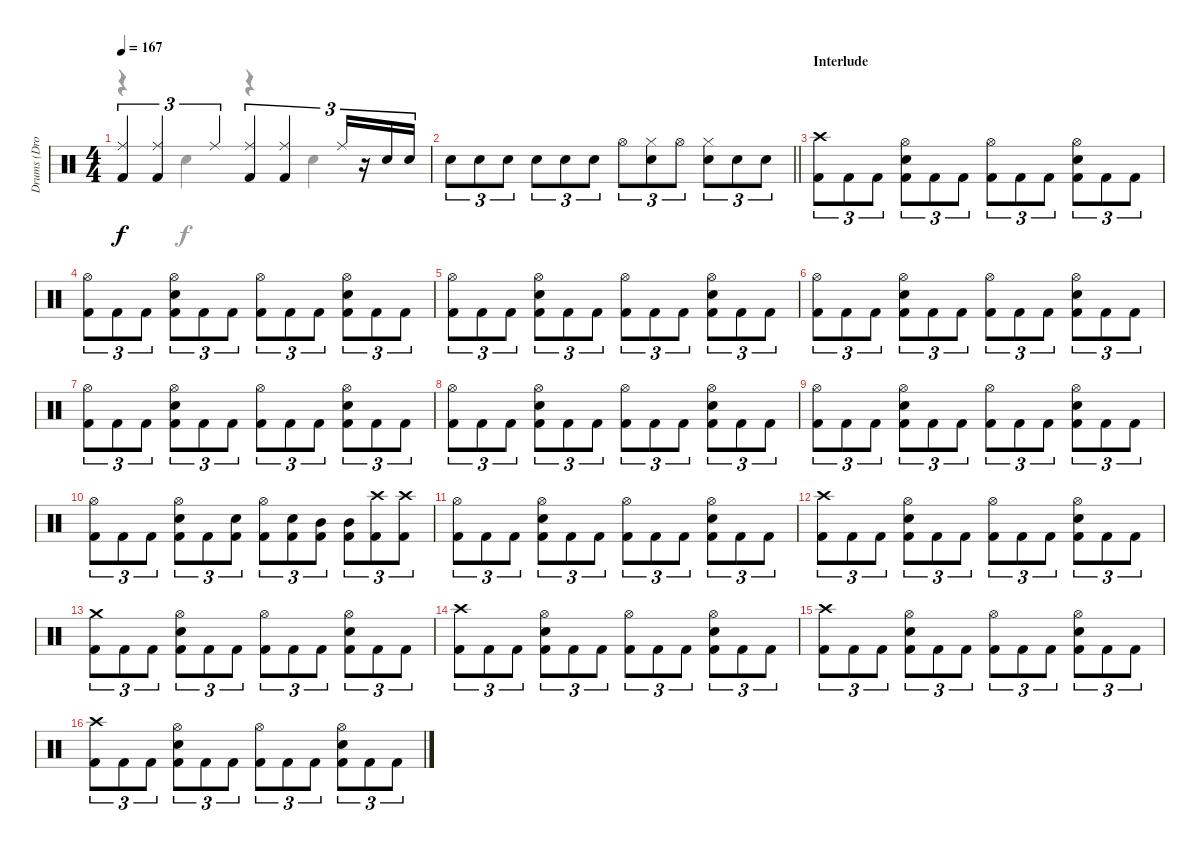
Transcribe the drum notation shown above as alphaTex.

\track ("Drums (Drover)" "Drums (Dro") {instrument percussion}
\staff {score}
\articulation defaults
\voice
\ts (4 4)
\tempo 167
\clef neutral
\ks c
("Ride (middle)" "Kick (hit) 2").4{tu (3 2) dy f} ("Ride (middle)" "Kick (hit) 2").4{tu (3 2)} "Ride (middle)".4{tu (3 2)} ("Ride (middle)" "Kick (hit) 2").4{tu (3 2)} ("Ride (middle)" "Kick (hit) 2").4{tu (3 2)} "Ride (middle)".16{tu (3 2)} r.16{tu (3 2)} "Electric Snare (hit)".16{tu (3 2)} "Electric Snare (hit)".16{tu (3 2)} |
\barLineRight lightlight "Electric Snare (hit)".8{tu (3 2)} "Electric Snare (hit)".8{tu (3 2)} "Electric Snare (hit)".8{tu (3 2)} "Electric Snare (hit)".8{tu (3 2)} "Electric Snare (hit)".8{tu (3 2)} "Electric Snare (hit)".8{tu (3 2)} "Hi-Hat (open)".8{tu (3 2)}
("Hi-Hat (closed)" "Electric Snare (hit)").8{tu (3 2)} "Hi-Hat (open)".8{tu (3 2)} ("Hi-Hat (closed)" "Electric Snare (hit)").8{tu (3 2)} "Electric Snare (hit)".8{tu (3 2)} "Electric Snare (hit)".8{tu (3 2)} |
\section ("" "Interlude")
("Crash high (hit)" "Kick (hit) 2").8{tu (3 2)} "Kick (hit) 2".8{tu (3 2)} "Kick (hit) 2".8{tu (3 2)} ("Hi-Hat (open)" "Electric Snare (hit)" "Kick (hit) 2").8{tu (3 2)} "Kick (hit) 2".8{tu (3 2)} "Kick (hit) 2".8{tu (3 2)} ("Hi-Hat (open)" "Kick (hit) 2").8{tu (3 2)} "Kick (hit) 2".8{tu (3 2)} "Kick (hit) 2".8{tu (3 2)} ("Hi-Hat (open)" "Electric Snare (hit)" "Kick (hit) 2").8{tu (3 2)} "Kick (hit) 2".8{tu (3 2)} "Kick (hit) 2".8{tu (3 2)} |
("Hi-Hat (open)" "Kick (hit) 2").8{tu (3 2)} "Kick (hit) 2".8{tu (3 2)} "Kick (hit) 2".8{tu (3 2)} ("Hi-Hat (open)" "Electric Snare (hit)" "Kick (hit) 2").8{tu (3 2)} "Kick (hit) 2".8{tu (3 2)} "Kick (hit) 2".8{tu (3 2)} ("Hi-Hat (open)" "Kick (hit) 2").8{tu (3 2)} "Kick (hit) 2".8{tu (3 2)} "Kick (hit) 2".8{tu (3 2)} ("Hi-Hat (open)" "Electric Snare (hit)" "Kick (hit) 2").8{tu (3 2)} "Kick (hit) 2".8{tu (3 2)} "Kick (hit) 2".8{tu (3 2)} |
("Hi-Hat (open)" "Kick (hit) 2").8{tu (3 2)} "Kick (hit) 2".8{tu (3 2)} "Kick (hit) 2".8{tu (3 2)} ("Hi-Hat (open)" "Electric Snare (hit)" "Kick (hit) 2").8{tu (3 2)} "Kick (hit) 2".8{tu (3 2)} "Kick (hit) 2".8{tu (3 2)} ("Hi-Hat (open)" "Kick (hit) 2").8{tu (3 2)} "Kick (hit) 2".8{tu (3 2)} "Kick (hit) 2".8{tu (3 2)} ("Hi-Hat (open)" "Electric Snare (hit)" "Kick (hit) 2").8{tu (3 2)} "Kick (hit) 2".8{tu (3 2)} "Kick (hit) 2".8{tu (3 2)} |
("Hi-Hat (open)" "Kick (hit) 2").8{tu (3 2)} "Kick (hit) 2".8{tu (3 2)} "Kick (hit) 2".8{tu (3 2)} ("Hi-Hat (open)" "Electric Snare (hit)" "Kick (hit) 2").8{tu (3 2)} "Kick (hit) 2".8{tu (3 2)} "Kick (hit) 2".8{tu (3 2)} ("Hi-Hat (open)" "Kick (hit) 2").8{tu (3 2)} "Kick (hit) 2".8{tu (3 2)} "Kick (hit) 2".8{tu (3 2)} ("Hi-Hat (open)" "Electric Snare (hit)" "Kick (hit) 2").8{tu (3 2)} "Kick (hit) 2".8{tu (3 2)} "Kick (hit) 2".8{tu (3 2)} |
("Hi-Hat (open)" "Kick (hit) 2").8{tu (3 2)} "Kick (hit) 2".8{tu (3 2)} "Kick (hit) 2".8{tu (3 2)} ("Hi-Hat (open)" "Electric Snare (hit)" "Kick (hit) 2").8{tu (3 2)} "Kick (hit) 2".8{tu (3 2)} "Kick (hit) 2".8{tu (3 2)} ("Hi-Hat (open)" "Kick (hit) 2").8{tu (3 2)} "Kick (hit) 2".8{tu (3 2)} "Kick (hit) 2".8{tu (3 2)} ("Hi-Hat (open)" "Electric Snare (hit)" "Kick (hit) 2").8{tu (3 2)} "Kick (hit) 2".8{tu (3 2)} "Kick (hit) 2".8{tu (3 2)} |
("Hi-Hat (open)" "Kick (hit) 2").8{tu (3 2)} "Kick (hit) 2".8{tu (3 2)} "Kick (hit) 2".8{tu (3 2)} ("Hi-Hat (open)" "Electric Snare (hit)" "Kick (hit) 2").8{tu (3 2)} "Kick (hit) 2".8{tu (3 2)} "Kick (hit) 2".8{tu (3 2)} ("Hi-Hat (open)" "Kick (hit) 2").8{tu (3 2)} "Kick (hit) 2".8{tu (3 2)} "Kick (hit) 2".8{tu (3 2)} ("Hi-Hat (open)" "Electric Snare (hit)" "Kick (hit) 2").8{tu (3 2)} "Kick (hit) 2".8{tu (3 2)} "Kick (hit) 2".8{tu (3 2)} |
("Hi-Hat (open)" "Kick (hit) 2").8{tu (3 2)} "Kick (hit) 2".8{tu (3 2)} "Kick (hit) 2".8{tu (3 2)} ("Hi-Hat (open)" "Electric Snare (hit)" "Kick (hit) 2").8{tu (3 2)} "Kick (hit) 2".8{tu (3 2)} "Kick (hit) 2".8{tu (3 2)} ("Hi-Hat (open)" "Kick (hit) 2").8{tu (3 2)} "Kick (hit) 2".8{tu (3 2)} "Kick (hit) 2".8{tu (3 2)} ("Hi-Hat (open)" "Electric Snare (hit)" "Kick (hit) 2").8{tu (3 2)} "Kick (hit) 2".8{tu (3 2)} "Kick (hit) 2".8{tu (3 2)} |
("Hi-Hat (open)" "Kick (hit) 2").8{tu (3 2)} "Kick (hit) 2".8{tu (3 2)} "Kick (hit) 2".8{tu (3 2)} ("Hi-Hat (open)" "Electric Snare (hit)" "Kick (hit) 2").8{tu (3 2)} "Kick (hit) 2".8{tu (3 2)} ("Electric Snare (hit)" "Kick (hit) 2").8{tu (3 2)} ("Hi-Hat (open)" "Kick (hit) 2").8{tu (3 2)} ("Electric Snare (hit)" "Kick (hit) 2").8{tu (3 2)} ("Mid Tom (hit)" "Kick (hit) 2").8{tu (3 2)} ("Mid Tom (hit)" "Kick (hit) 2").8{tu (3 2)} ("Crash high (hit)" "Kick (hit) 2").8{tu (3 2)} ("Crash high (hit)" "Kick (hit) 2").8{tu (3 2)} |
("Hi-Hat (open)" "Kick (hit) 2").8{tu (3 2)} "Kick (hit) 2".8{tu (3 2)} "Kick (hit) 2".8{tu (3 2)} ("Hi-Hat (open)" "Electric Snare (hit)" "Kick (hit) 2").8{tu (3 2)} "Kick (hit) 2".8{tu (3 2)} "Kick (hit) 2".8{tu (3 2)} ("Hi-Hat (open)" "Kick (hit) 2").8{tu (3 2)} "Kick (hit) 2".8{tu (3 2)} "Kick (hit) 2".8{tu (3 2)} ("Hi-Hat (open)" "Electric Snare (hit)" "Kick (hit) 2").8{tu (3 2)} "Kick (hit) 2".8{tu (3 2)} "Kick (hit) 2".8{tu (3 2)} |
("Crash high (hit)" "Kick (hit) 2").8{tu (3 2)} "Kick (hit) 2".8{tu (3 2)} "Kick (hit) 2".8{tu (3 2)} ("Hi-Hat (open)" "Electric Snare (hit)" "Kick (hit) 2").8{tu (3 2)} "Kick (hit) 2".8{tu (3 2)} "Kick (hit) 2".8{tu (3 2)} ("Hi-Hat (open)" "Kick (hit) 2").8{tu (3 2)} "Kick (hit) 2".8{tu (3 2)} "Kick (hit) 2".8{tu (3 2)} ("Hi-Hat (open)" "Electric Snare (hit)" "Kick (hit) 2").8{tu (3 2)} "Kick (hit) 2".8{tu (3 2)} "Kick (hit) 2".8{tu (3 2)} |
("Crash medium (hit)" "Kick (hit) 2").8{tu (3 2)} "Kick (hit) 2".8{tu (3 2)} "Kick (hit) 2".8{tu (3 2)} ("Hi-Hat (open)" "Electric Snare (hit)" "Kick (hit) 2").8{tu (3 2)} "Kick (hit) 2".8{tu (3 2)} "Kick (hit) 2".8{tu (3 2)} ("Hi-Hat (open)" "Kick (hit) 2").8{tu (3 2)} "Kick (hit) 2".8{tu (3 2)} "Kick (hit) 2".8{tu (3 2)} ("Hi-Hat (open)" "Electric Snare (hit)" "Kick (hit) 2").8{tu (3 2)} "Kick (hit) 2".8{tu (3 2)} "Kick (hit) 2".8{tu (3 2)} |
("Crash high (hit)" "Kick (hit) 2").8{tu (3 2)} "Kick (hit) 2".8{tu (3 2)} "Kick (hit) 2".8{tu (3 2)} ("Hi-Hat (open)" "Electric Snare (hit)" "Kick (hit) 2").8{tu (3 2)} "Kick (hit) 2".8{tu (3 2)} "Kick (hit) 2".8{tu (3 2)} ("Hi-Hat (open)" "Kick (hit) 2").8{tu (3 2)} "Kick (hit) 2".8{tu (3 2)} "Kick (hit) 2".8{tu (3 2)} ("Hi-Hat (open)" "Electric Snare (hit)" "Kick (hit) 2").8{tu (3 2)} "Kick (hit) 2".8{tu (3 2)} "Kick (hit) 2".8{tu (3 2)} |
("Crash high (hit)" "Kick (hit) 2").8{tu (3 2)} "Kick (hit) 2".8{tu (3 2)} "Kick (hit) 2".8{tu (3 2)} ("Hi-Hat (open)" "Electric Snare (hit)" "Kick (hit) 2").8{tu (3 2)} "Kick (hit) 2".8{tu (3 2)} "Kick (hit) 2".8{tu (3 2)} ("Hi-Hat (open)" "Kick (hit) 2").8{tu (3 2)} "Kick (hit) 2".8{tu (3 2)} "Kick (hit) 2".8{tu (3 2)} ("Hi-Hat (open)" "Electric Snare (hit)" "Kick (hit) 2").8{tu (3 2)} "Kick (hit) 2".8{tu (3 2)} "Kick (hit) 2".8{tu (3 2)} |
("Crash high (hit)" "Kick (hit) 2").8{tu (3 2)} "Kick (hit) 2".8{tu (3 2)} "Kick (hit) 2".8{tu (3 2)} ("Hi-Hat (open)" "Electric Snare (hit)" "Kick (hit) 2").8{tu (3 2)} "Kick (hit) 2".8{tu (3 2)} "Kick (hit) 2".8{tu (3 2)} ("Hi-Hat (open)" "Kick (hit) 2").8{tu (3 2)} "Kick (hit) 2".8{tu (3 2)} "Kick (hit) 2".8{tu (3 2)} ("Hi-Hat (open)" "Electric Snare (hit)" "Kick (hit) 2").8{tu (3 2)} "Kick (hit) 2".8{tu (3 2)} "Kick (hit) 2".8{tu (3 2)}
\voice
\clef neutral
\ottava regular
\simile none
\ks c
r.4{dy f} "Electric Snare (hit)".4 r.4 "Electric Snare (hit)".4 |
\barLineRight lightlight
|
|
|
|
|
|
|
|
|
|
|
|
|
|
